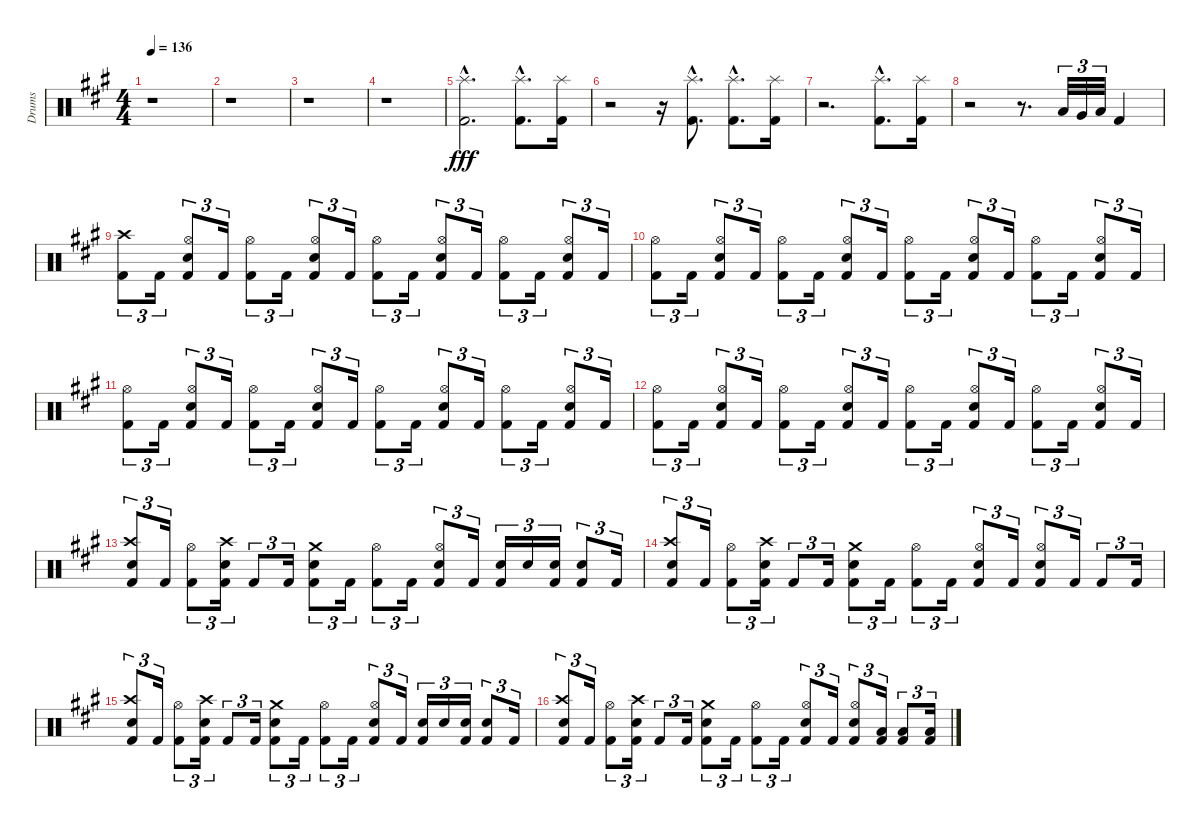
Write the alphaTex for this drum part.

\track ("Drums" "Drums") {instrument percussion}
\staff {score}
\articulation defaults
\ts (4 4)
\tempo 136
\clef neutral
\ks a
r.1{dy fff} |
r.1 |
r.1 |
r.1 |
("Splash (hit)"{hac} "Kick (hit) 2"{hac}).2{d} ("Splash (hit)"{hac} "Kick (hit) 2"{hac}).8{d} ("Splash (hit)" "Kick (hit) 2").16 |
r.2 r.16 ("Splash (hit)"{hac} "Kick (hit) 2"{hac}).8{d} ("Splash (hit)"{hac} "Kick (hit) 2"{hac}).8{d} ("Splash (hit)" "Kick (hit) 2").16 |
r.2{d} ("Splash (hit)"{hac} "Kick (hit) 2"{hac}).8{d} ("Splash (hit)" "Kick (hit) 2").16 |
r.2 r.8{d} "Low Tom (hit)".32{tu (3 2)} "Very Low Tom (hit)".32{tu (3 2)} "Low Floor Tom (hit)".32{tu (3 2)} "Kick (hit) 2".4 |
("Crash high (hit)" "Kick (hit) 2").8{tu (3 2)} "Kick (hit) 2".16{tu (3 2)} ("Hi-Hat (open)" "Snare (hit) 2" "Kick (hit) 2").8{tu (3 2)} "Kick (hit) 2".16{tu (3 2)} ("Hi-Hat (open)" "Kick (hit) 2").8{tu (3 2)} "Kick (hit) 2".16{tu (3 2)} ("Hi-Hat (open)" "Snare (hit) 2" "Kick (hit) 2").8{tu (3 2)} "Kick (hit) 2".16{tu (3 2)} ("Hi-Hat (open)" "Kick (hit) 2").8{tu (3 2)} "Kick (hit) 2".16{tu (3 2)} ("Hi-Hat (open)" "Snare (hit) 2" "Kick (hit) 2").8{tu (3 2)} "Kick (hit) 2".16{tu (3 2)} ("Hi-Hat (open)" "Kick (hit) 2").8{tu (3 2)} "Kick (hit) 2".16{tu (3 2)} ("Hi-Hat (open)" "Snare (hit) 2" "Kick (hit) 2").8{tu (3 2)} "Kick (hit) 2".16{tu (3 2)} |
("Hi-Hat (open)" "Kick (hit) 2").8{tu (3 2)} "Kick (hit) 2".16{tu (3 2)} ("Hi-Hat (open)" "Snare (hit) 2" "Kick (hit) 2").8{tu (3 2)} "Kick (hit) 2".16{tu (3 2)} ("Hi-Hat (open)" "Kick (hit) 2").8{tu (3 2)} "Kick (hit) 2".16{tu (3 2)} ("Hi-Hat (open)" "Snare (hit) 2" "Kick (hit) 2").8{tu (3 2)} "Kick (hit) 2".16{tu (3 2)} ("Hi-Hat (open)" "Kick (hit) 2").8{tu (3 2)} "Kick (hit) 2".16{tu (3 2)} ("Hi-Hat (open)" "Snare (hit) 2" "Kick (hit) 2").8{tu (3 2)} "Kick (hit) 2".16{tu (3 2)} ("Hi-Hat (open)" "Kick (hit) 2").8{tu (3 2)} "Kick (hit) 2".16{tu (3 2)} ("Hi-Hat (open)" "Snare (hit) 2" "Kick (hit) 2").8{tu (3 2)} "Kick (hit) 2".16{tu (3 2)} |
("Hi-Hat (open)" "Kick (hit) 2").8{tu (3 2)} "Kick (hit) 2".16{tu (3 2)} ("Hi-Hat (open)" "Snare (hit) 2" "Kick (hit) 2").8{tu (3 2)} "Kick (hit) 2".16{tu (3 2)} ("Hi-Hat (open)" "Kick (hit) 2").8{tu (3 2)} "Kick (hit) 2".16{tu (3 2)} ("Hi-Hat (open)" "Snare (hit) 2" "Kick (hit) 2").8{tu (3 2)} "Kick (hit) 2".16{tu (3 2)} ("Hi-Hat (open)" "Kick (hit) 2").8{tu (3 2)} "Kick (hit) 2".16{tu (3 2)} ("Hi-Hat (open)" "Snare (hit) 2" "Kick (hit) 2").8{tu (3 2)} "Kick (hit) 2".16{tu (3 2)} ("Hi-Hat (open)" "Kick (hit) 2").8{tu (3 2)} "Kick (hit) 2".16{tu (3 2)} ("Hi-Hat (open)" "Snare (hit) 2" "Kick (hit) 2").8{tu (3 2)} "Kick (hit) 2".16{tu (3 2)} |
("Hi-Hat (open)" "Kick (hit) 2").8{tu (3 2)} "Kick (hit) 2".16{tu (3 2)} ("Hi-Hat (open)" "Snare (hit) 2" "Kick (hit) 2").8{tu (3 2)} "Kick (hit) 2".16{tu (3 2)} ("Hi-Hat (open)" "Kick (hit) 2").8{tu (3 2)} "Kick (hit) 2".16{tu (3 2)} ("Hi-Hat (open)" "Snare (hit) 2" "Kick (hit) 2").8{tu (3 2)} "Kick (hit) 2".16{tu (3 2)} ("Hi-Hat (open)" "Kick (hit) 2").8{tu (3 2)} "Kick (hit) 2".16{tu (3 2)} ("Hi-Hat (open)" "Snare (hit) 2" "Kick (hit) 2").8{tu (3 2)} "Kick (hit) 2".16{tu (3 2)} ("Hi-Hat (open)" "Kick (hit) 2").8{tu (3 2)} "Kick (hit) 2".16{tu (3 2)} ("Hi-Hat (open)" "Snare (hit) 2" "Kick (hit) 2").8{tu (3 2)} "Kick (hit) 2".16{tu (3 2)} |
("Crash high (hit)" "Snare (hit) 2" "Kick (hit) 2").8{tu (3 2)} "Kick (hit) 2".16{tu (3 2)} ("Hi-Hat (open)" "Kick (hit) 2").8{tu (3 2)} ("Crash high (hit)" "Snare (hit) 2" "Kick (hit) 2").16{tu (3 2)} "Kick (hit) 2".8{tu (3 2)} "Kick (hit) 2".16{tu (3 2)} ("Crash medium (hit)" "Snare (hit) 2" "Kick (hit) 2").8{tu (3 2)} "Kick (hit) 2".16{tu (3 2)} ("Hi-Hat (open)" "Kick (hit) 2").8{tu (3 2)} "Kick (hit) 2".16{tu (3 2)} ("Hi-Hat (open)" "Snare (hit) 2" "Kick (hit) 2").8{tu (3 2)} "Kick (hit) 2".16{tu (3 2)} ("Snare (hit) 2" "Kick (hit) 2").16{tu (3 2)} "Snare (hit) 2".16{tu (3 2)} ("Snare (hit) 2" "Kick (hit) 2").16{tu (3 2)} ("Snare (hit) 2" "Kick (hit) 2").8{tu (3 2)} "Kick (hit) 2".16{tu (3 2)} |
("Crash high (hit)" "Snare (hit) 2" "Kick (hit) 2").8{tu (3 2)} "Kick (hit) 2".16{tu (3 2)} ("Hi-Hat (open)" "Kick (hit) 2").8{tu (3 2)} ("Crash high (hit)" "Snare (hit) 2" "Kick (hit) 2").16{tu (3 2)} "Kick (hit) 2".8{tu (3 2)} "Kick (hit) 2".16{tu (3 2)} ("Crash medium (hit)" "Snare (hit) 2" "Kick (hit) 2").8{tu (3 2)} "Kick (hit) 2".16{tu (3 2)} ("Hi-Hat (open)" "Kick (hit) 2").8{tu (3 2)} "Kick (hit) 2".16{tu (3 2)} ("Hi-Hat (open)" "Snare (hit) 2" "Kick (hit) 2").8{tu (3 2)} "Kick (hit) 2".16{tu (3 2)} ("Hi-Hat (open)" "Snare (hit) 2" "Kick (hit) 2").8{tu (3 2)} "Kick (hit) 2".16{tu (3 2)} "Kick (hit) 2".8{tu (3 2)} "Kick (hit) 2".16{tu (3 2)} |
("Crash high (hit)" "Snare (hit) 2" "Kick (hit) 2").8{tu (3 2)} "Kick (hit) 2".16{tu (3 2)} ("Hi-Hat (open)" "Kick (hit) 2").8{tu (3 2)} ("Crash high (hit)" "Snare (hit) 2" "Kick (hit) 2").16{tu (3 2)} "Kick (hit) 2".8{tu (3 2)} "Kick (hit) 2".16{tu (3 2)} ("Crash medium (hit)" "Snare (hit) 2" "Kick (hit) 2").8{tu (3 2)} "Kick (hit) 2".16{tu (3 2)} ("Hi-Hat (open)" "Kick (hit) 2").8{tu (3 2)} "Kick (hit) 2".16{tu (3 2)} ("Hi-Hat (open)" "Snare (hit) 2" "Kick (hit) 2").8{tu (3 2)} "Kick (hit) 2".16{tu (3 2)} ("Snare (hit) 2" "Kick (hit) 2").16{tu (3 2)} "Snare (hit) 2".16{tu (3 2)} ("Snare (hit) 2" "Kick (hit) 2").16{tu (3 2)} ("Snare (hit) 2" "Kick (hit) 2").8{tu (3 2)} "Kick (hit) 2".16{tu (3 2)} |
("Crash high (hit)" "Snare (hit) 2" "Kick (hit) 2").8{tu (3 2)} "Kick (hit) 2".16{tu (3 2)} ("Hi-Hat (open)" "Kick (hit) 2").8{tu (3 2)} ("Crash high (hit)" "Snare (hit) 2" "Kick (hit) 2").16{tu (3 2)} "Kick (hit) 2".8{tu (3 2)} "Kick (hit) 2".16{tu (3 2)} ("Crash medium (hit)" "Snare (hit) 2" "Kick (hit) 2").8{tu (3 2)} "Kick (hit) 2".16{tu (3 2)} ("Hi-Hat (open)" "Kick (hit) 2").8{tu (3 2)} "Kick (hit) 2".16{tu (3 2)} ("Hi-Hat (open)" "Snare (hit) 2" "Kick (hit) 2").8{tu (3 2)} "Kick (hit) 2".16{tu (3 2)} ("Hi-Hat (open)" "Snare (hit) 2" "Kick (hit) 2").8{tu (3 2)} ("Low Floor Tom (hit)" "Kick (hit) 2").16{tu (3 2)} ("Low Floor Tom (hit)" "Kick (hit) 2").8{tu (3 2)} ("Low Floor Tom (hit)" "Kick (hit) 2").16{tu (3 2)}
